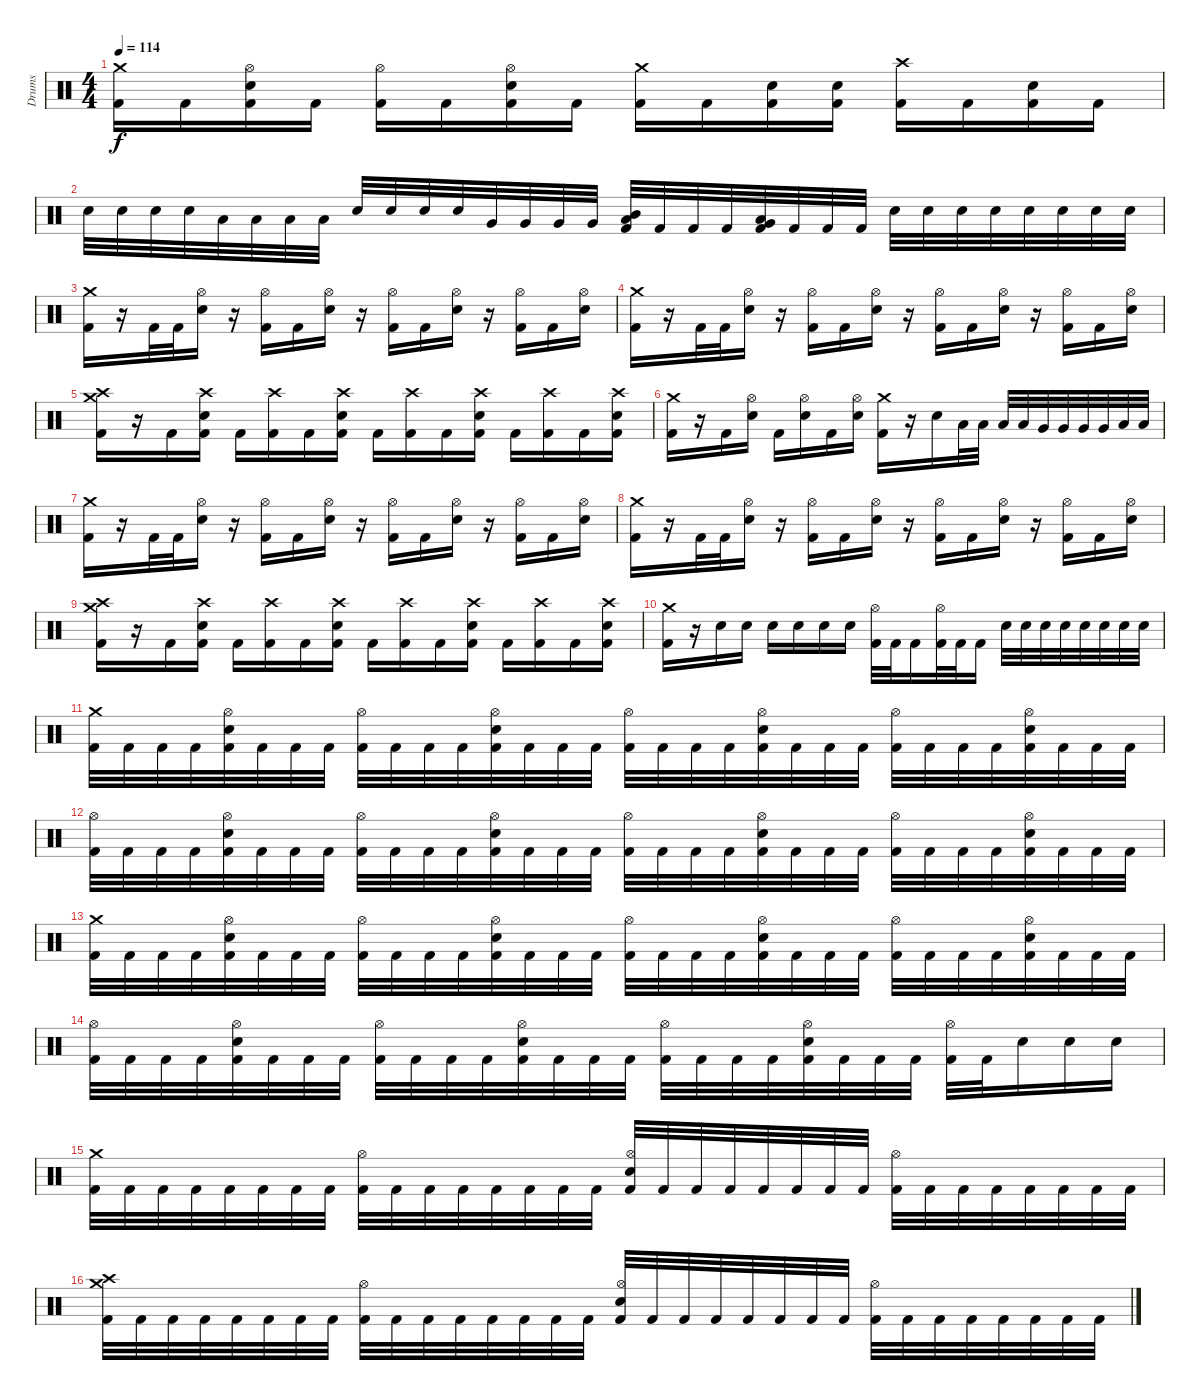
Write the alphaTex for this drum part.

\track ("Drums" "Drums") {instrument percussion}
\staff {score}
\articulation defaults
\ts (4 4)
\tempo 114
\clef neutral
\ks c
("Crash medium (hit)" "Kick (hit) 2").16{dy f} "Kick (hit) 2".16 ("Hi-Hat (open)" "Snare (hit) 2" "Kick (hit) 2").16 "Kick (hit) 2".16 ("Hi-Hat (open)" "Kick (hit) 2").16 "Kick (hit) 2".16 ("Hi-Hat (open)" "Snare (hit) 2" "Kick (hit) 2").16 "Kick (hit) 2".16 ("Crash medium (hit)" "Kick (hit) 2").16 "Kick (hit) 2".16 ("Snare (hit) 2" "Kick (hit) 2").16 ("Snare (hit) 2" "Kick (hit) 2").16 ("Crash high (hit)" "Kick (hit) 2").16 "Kick (hit) 2".16 ("Snare (hit) 2" "Kick (hit) 2").16 "Kick (hit) 2".16 |
"Snare (hit) 2".32 "Snare (hit) 2".32 "Snare (hit) 2".32 "Snare (hit) 2".32 "Low Tom (hit)".32 "Low Tom (hit)".32 "Low Tom (hit)".32 "Low Tom (hit)".32 "Snare (hit) 2".32 "Snare (hit) 2".32 "Snare (hit) 2".32 "Snare (hit) 2".32 "Very Low Tom (hit)".32 "Very Low Tom (hit)".32 "Very Low Tom (hit)".32 "Very Low Tom (hit)".32 ("Low Tom (hit)" "Mid Tom (hit)" "Kick (hit) 2").32 "Kick (hit) 2".32 "Kick (hit) 2".32 "Kick (hit) 2".32 ("Very Low Tom (hit)" "Low Tom (hit)" "Kick (hit) 2").32 "Kick (hit) 2".32 "Kick (hit) 2".32 "Kick (hit) 2".32 "Snare (hit) 2".32 "Snare (hit) 2".32 "Snare (hit) 2".32 "Snare (hit) 2".32 "Snare (hit) 2".32 "Snare (hit) 2".32 "Snare (hit) 2".32 "Snare (hit) 2".32 |
("Crash medium (hit)" "Kick (hit) 2").16 r.16 "Kick (hit) 2".32 "Kick (hit) 2".32 ("Hi-Hat (open)" "Snare (hit) 2").16 r.16 ("Hi-Hat (open)" "Kick (hit) 2").16 "Kick (hit) 2".16 ("Hi-Hat (open)" "Snare (hit) 2").16 r.16 ("Hi-Hat (open)" "Kick (hit) 2").16 "Kick (hit) 2".16 ("Hi-Hat (open)" "Snare (hit) 2").16 r.16 ("Hi-Hat (open)" "Kick (hit) 2").16 "Kick (hit) 2".16 ("Hi-Hat (open)" "Snare (hit) 2").16 |
("Crash medium (hit)" "Kick (hit) 2").16 r.16 "Kick (hit) 2".32 "Kick (hit) 2".32 ("Hi-Hat (open)" "Snare (hit) 2").16 r.16 ("Hi-Hat (open)" "Kick (hit) 2").16 "Kick (hit) 2".16 ("Hi-Hat (open)" "Snare (hit) 2").16 r.16 ("Hi-Hat (open)" "Kick (hit) 2").16 "Kick (hit) 2".16 ("Hi-Hat (open)" "Snare (hit) 2").16 r.16 ("Hi-Hat (open)" "Kick (hit) 2").16 "Kick (hit) 2".16 ("Hi-Hat (open)" "Snare (hit) 2").16 |
("Crash medium (hit)" "Crash high (hit)" "Kick (hit) 2").16 r.16 "Kick (hit) 2".16 ("Crash high (hit)" "Snare (hit) 2" "Kick (hit) 2").16 "Kick (hit) 2".16 ("Crash high (hit)" "Kick (hit) 2").16 "Kick (hit) 2".16 ("Crash high (hit)" "Snare (hit) 2" "Kick (hit) 2").16 "Kick (hit) 2".16 ("Crash high (hit)" "Kick (hit) 2").16 "Kick (hit) 2".16 ("Crash high (hit)" "Snare (hit) 2" "Kick (hit) 2").16 "Kick (hit) 2".16 ("Crash high (hit)" "Kick (hit) 2").16 "Kick (hit) 2".16 ("Crash high (hit)" "Snare (hit) 2" "Kick (hit) 2").16 |
("Crash medium (hit)" "Kick (hit) 2").16 r.16 "Kick (hit) 2".16 ("Hi-Hat (open)" "Snare (hit) 2").16 "Kick (hit) 2".16 ("Hi-Hat (open)" "Snare (hit) 2").16 "Kick (hit) 2".16 ("Hi-Hat (open)" "Snare (hit) 2").16 ("Crash medium (hit)" "Kick (hit) 2").16 r.16 "Snare (hit) 2".16 "Low Tom (hit)".32 "Low Tom (hit)".32 "Low Tom (hit)".32 "Low Tom (hit)".32 "Very Low Tom (hit)".32 "Very Low Tom (hit)".32 "Very Low Tom (hit)".32 "Very Low Tom (hit)".32 "Low Floor Tom (hit)".32 "Low Floor Tom (hit)".32 |
("Crash medium (hit)" "Kick (hit) 2").16 r.16 "Kick (hit) 2".32 "Kick (hit) 2".32 ("Hi-Hat (open)" "Snare (hit) 2").16 r.16 ("Hi-Hat (open)" "Kick (hit) 2").16 "Kick (hit) 2".16 ("Hi-Hat (open)" "Snare (hit) 2").16 r.16 ("Hi-Hat (open)" "Kick (hit) 2").16 "Kick (hit) 2".16 ("Hi-Hat (open)" "Snare (hit) 2").16 r.16 ("Hi-Hat (open)" "Kick (hit) 2").16 "Kick (hit) 2".16 ("Hi-Hat (open)" "Snare (hit) 2").16 |
("Crash medium (hit)" "Kick (hit) 2").16 r.16 "Kick (hit) 2".32 "Kick (hit) 2".32 ("Hi-Hat (open)" "Snare (hit) 2").16 r.16 ("Hi-Hat (open)" "Kick (hit) 2").16 "Kick (hit) 2".16 ("Hi-Hat (open)" "Snare (hit) 2").16 r.16 ("Hi-Hat (open)" "Kick (hit) 2").16 "Kick (hit) 2".16 ("Hi-Hat (open)" "Snare (hit) 2").16 r.16 ("Hi-Hat (open)" "Kick (hit) 2").16 "Kick (hit) 2".16 ("Hi-Hat (open)" "Snare (hit) 2").16 |
("Crash medium (hit)" "Crash high (hit)" "Kick (hit) 2").16 r.16 "Kick (hit) 2".16 ("Crash high (hit)" "Snare (hit) 2" "Kick (hit) 2").16 "Kick (hit) 2".16 ("Crash high (hit)" "Kick (hit) 2").16 "Kick (hit) 2".16 ("Crash high (hit)" "Snare (hit) 2" "Kick (hit) 2").16 "Kick (hit) 2".16 ("Crash high (hit)" "Kick (hit) 2").16 "Kick (hit) 2".16 ("Crash high (hit)" "Snare (hit) 2" "Kick (hit) 2").16 "Kick (hit) 2".16 ("Crash high (hit)" "Kick (hit) 2").16 "Kick (hit) 2".16 ("Crash high (hit)" "Snare (hit) 2" "Kick (hit) 2").16 |
("Crash medium (hit)" "Kick (hit) 2").16 r.16 "Snare (hit) 2".16 "Snare (hit) 2".16 "Snare (hit) 2".16 "Snare (hit) 2".16 "Snare (hit) 2".16 "Snare (hit) 2".16 ("Hi-Hat (open)" "Kick (hit) 2").32 "Kick (hit) 2".32 "Kick (hit) 2".16 ("Hi-Hat (open)" "Kick (hit) 2").32 "Kick (hit) 2".32 "Kick (hit) 2".16 "Snare (hit) 2".32 "Snare (hit) 2".32 "Snare (hit) 2".32 "Snare (hit) 2".32 "Snare (hit) 2".32 "Snare (hit) 2".32 "Snare (hit) 2".32 "Snare (hit) 2".32 |
("Crash medium (hit)" "Kick (hit) 2").32 "Kick (hit) 2".32 "Kick (hit) 2".32 "Kick (hit) 2".32 ("Hi-Hat (open)" "Snare (hit) 2" "Kick (hit) 2").32 "Kick (hit) 2".32 "Kick (hit) 2".32 "Kick (hit) 2".32 ("Hi-Hat (open)" "Kick (hit) 2").32 "Kick (hit) 2".32 "Kick (hit) 2".32 "Kick (hit) 2".32 ("Hi-Hat (open)" "Snare (hit) 2" "Kick (hit) 2").32 "Kick (hit) 2".32 "Kick (hit) 2".32 "Kick (hit) 2".32 ("Hi-Hat (open)" "Kick (hit) 2").32 "Kick (hit) 2".32 "Kick (hit) 2".32 "Kick (hit) 2".32 ("Hi-Hat (open)" "Snare (hit) 2" "Kick (hit) 2").32 "Kick (hit) 2".32 "Kick (hit) 2".32 "Kick (hit) 2".32 ("Hi-Hat (open)" "Kick (hit) 2").32 "Kick (hit) 2".32 "Kick (hit) 2".32 "Kick (hit) 2".32 ("Hi-Hat (open)" "Snare (hit) 2" "Kick (hit) 2").32 "Kick (hit) 2".32 "Kick (hit) 2".32 "Kick (hit) 2".32 |
("Hi-Hat (open)" "Kick (hit) 2").32 "Kick (hit) 2".32 "Kick (hit) 2".32 "Kick (hit) 2".32 ("Hi-Hat (open)" "Snare (hit) 2" "Kick (hit) 2").32 "Kick (hit) 2".32 "Kick (hit) 2".32 "Kick (hit) 2".32 ("Hi-Hat (open)" "Kick (hit) 2").32 "Kick (hit) 2".32 "Kick (hit) 2".32 "Kick (hit) 2".32 ("Hi-Hat (open)" "Snare (hit) 2" "Kick (hit) 2").32 "Kick (hit) 2".32 "Kick (hit) 2".32 "Kick (hit) 2".32 ("Hi-Hat (open)" "Kick (hit) 2").32 "Kick (hit) 2".32 "Kick (hit) 2".32 "Kick (hit) 2".32 ("Hi-Hat (open)" "Snare (hit) 2" "Kick (hit) 2").32 "Kick (hit) 2".32 "Kick (hit) 2".32 "Kick (hit) 2".32 ("Hi-Hat (open)" "Kick (hit) 2").32 "Kick (hit) 2".32 "Kick (hit) 2".32 "Kick (hit) 2".32 ("Hi-Hat (open)" "Snare (hit) 2" "Kick (hit) 2").32 "Kick (hit) 2".32 "Kick (hit) 2".32 "Kick (hit) 2".32 |
("Crash medium (hit)" "Kick (hit) 2").32 "Kick (hit) 2".32 "Kick (hit) 2".32 "Kick (hit) 2".32 ("Hi-Hat (open)" "Snare (hit) 2" "Kick (hit) 2").32 "Kick (hit) 2".32 "Kick (hit) 2".32 "Kick (hit) 2".32 ("Hi-Hat (open)" "Kick (hit) 2").32 "Kick (hit) 2".32 "Kick (hit) 2".32 "Kick (hit) 2".32 ("Hi-Hat (open)" "Snare (hit) 2" "Kick (hit) 2").32 "Kick (hit) 2".32 "Kick (hit) 2".32 "Kick (hit) 2".32 ("Hi-Hat (open)" "Kick (hit) 2").32 "Kick (hit) 2".32 "Kick (hit) 2".32 "Kick (hit) 2".32 ("Hi-Hat (open)" "Snare (hit) 2" "Kick (hit) 2").32 "Kick (hit) 2".32 "Kick (hit) 2".32 "Kick (hit) 2".32 ("Hi-Hat (open)" "Kick (hit) 2").32 "Kick (hit) 2".32 "Kick (hit) 2".32 "Kick (hit) 2".32 ("Hi-Hat (open)" "Snare (hit) 2" "Kick (hit) 2").32 "Kick (hit) 2".32 "Kick (hit) 2".32 "Kick (hit) 2".32 |
("Hi-Hat (open)" "Kick (hit) 2").32 "Kick (hit) 2".32 "Kick (hit) 2".32 "Kick (hit) 2".32 ("Hi-Hat (open)" "Snare (hit) 2" "Kick (hit) 2").32 "Kick (hit) 2".32 "Kick (hit) 2".32 "Kick (hit) 2".32 ("Hi-Hat (open)" "Kick (hit) 2").32 "Kick (hit) 2".32 "Kick (hit) 2".32 "Kick (hit) 2".32 ("Hi-Hat (open)" "Snare (hit) 2" "Kick (hit) 2").32 "Kick (hit) 2".32 "Kick (hit) 2".32 "Kick (hit) 2".32 ("Hi-Hat (open)" "Kick (hit) 2").32 "Kick (hit) 2".32 "Kick (hit) 2".32 "Kick (hit) 2".32 ("Hi-Hat (open)" "Snare (hit) 2" "Kick (hit) 2").32 "Kick (hit) 2".32 "Kick (hit) 2".32 "Kick (hit) 2".32 ("Hi-Hat (open)" "Kick (hit) 2").32 "Kick (hit) 2".32 "Snare (hit) 2".16 "Snare (hit) 2".16 "Snare (hit) 2".16 |
("Crash medium (hit)" "Kick (hit) 2").32 "Kick (hit) 2".32 "Kick (hit) 2".32 "Kick (hit) 2".32 "Kick (hit) 2".32 "Kick (hit) 2".32 "Kick (hit) 2".32 "Kick (hit) 2".32 ("Hi-Hat (open)" "Kick (hit) 2").32 "Kick (hit) 2".32 "Kick (hit) 2".32 "Kick (hit) 2".32 "Kick (hit) 2".32 "Kick (hit) 2".32 "Kick (hit) 2".32 "Kick (hit) 2".32 ("Hi-Hat (open)" "Snare (hit) 2" "Kick (hit) 2").32 "Kick (hit) 2".32 "Kick (hit) 2".32 "Kick (hit) 2".32 "Kick (hit) 2".32 "Kick (hit) 2".32 "Kick (hit) 2".32 "Kick (hit) 2".32 ("Hi-Hat (open)" "Kick (hit) 2").32 "Kick (hit) 2".32 "Kick (hit) 2".32 "Kick (hit) 2".32 "Kick (hit) 2".32 "Kick (hit) 2".32 "Kick (hit) 2".32 "Kick (hit) 2".32 |
("Crash high (hit)" "Crash medium (hit)" "Kick (hit) 2").32 "Kick (hit) 2".32 "Kick (hit) 2".32 "Kick (hit) 2".32 "Kick (hit) 2".32 "Kick (hit) 2".32 "Kick (hit) 2".32 "Kick (hit) 2".32 ("Hi-Hat (open)" "Kick (hit) 2").32 "Kick (hit) 2".32 "Kick (hit) 2".32 "Kick (hit) 2".32 "Kick (hit) 2".32 "Kick (hit) 2".32 "Kick (hit) 2".32 "Kick (hit) 2".32 ("Hi-Hat (open)" "Snare (hit) 2" "Kick (hit) 2").32 "Kick (hit) 2".32 "Kick (hit) 2".32 "Kick (hit) 2".32 "Kick (hit) 2".32 "Kick (hit) 2".32 "Kick (hit) 2".32 "Kick (hit) 2".32 ("Hi-Hat (open)" "Kick (hit) 2").32 "Kick (hit) 2".32 "Kick (hit) 2".32 "Kick (hit) 2".32 "Kick (hit) 2".32 "Kick (hit) 2".32 "Kick (hit) 2".32 "Kick (hit) 2".32
